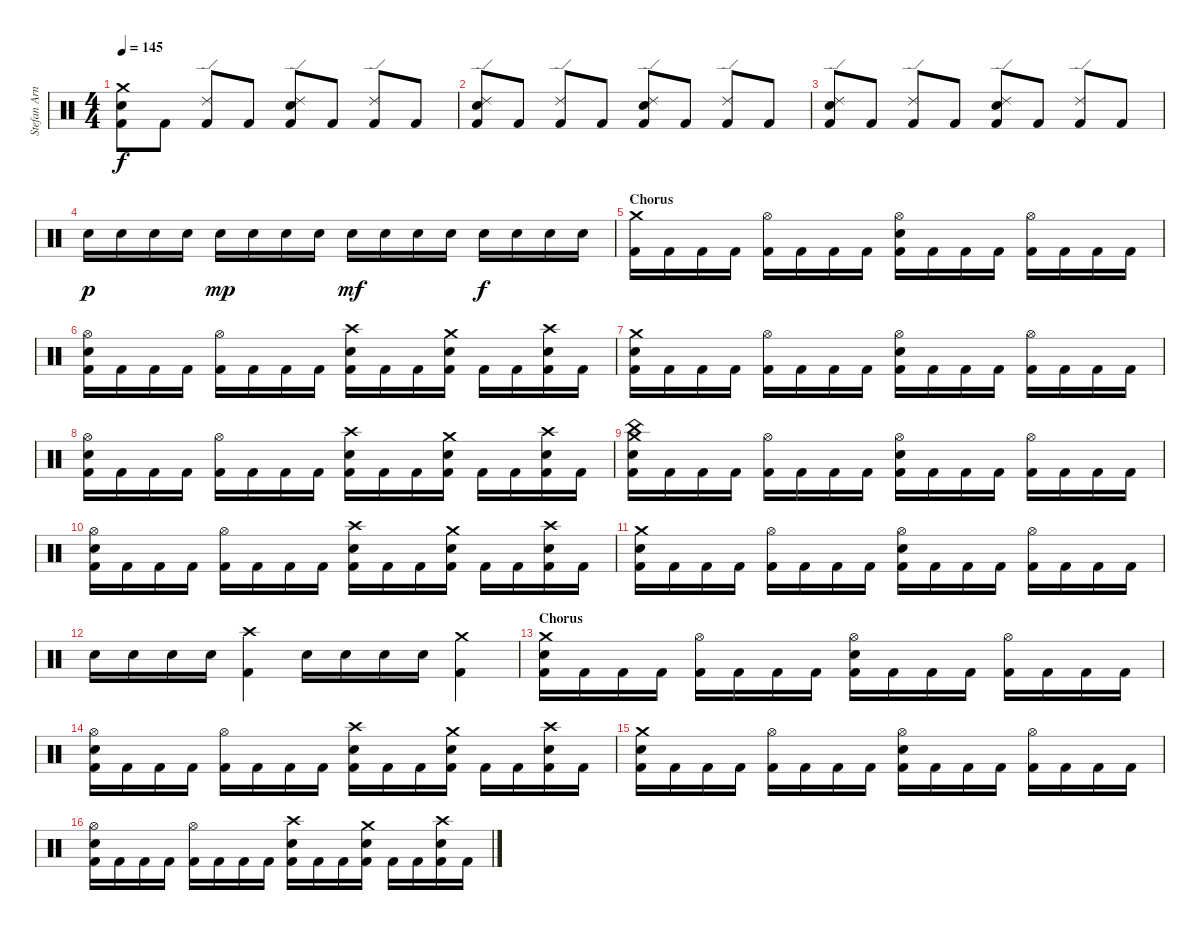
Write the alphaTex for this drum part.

\track ("Stefan Arnold" "Stefan Arn") {instrument percussion}
\staff {score}
\articulation defaults
\ts (4 4)
\tempo 145
\clef neutral
\ks c
("Crash medium (hit)" "Electric Snare (hit)" "Kick (hit) 2").8{dy f} "Kick (hit) 2".8 ("Ride (edge) 2" "Kick (hit) 2").8 "Kick (hit) 2".8 ("Ride (edge) 2" "Electric Snare (hit)" "Kick (hit) 2").8 "Kick (hit) 2".8 ("Ride (edge) 2" "Kick (hit) 2").8 "Kick (hit) 2".8 |
("Ride (edge) 2" "Electric Snare (hit)" "Kick (hit) 2").8 "Kick (hit) 2".8 ("Ride (edge) 2" "Kick (hit) 2").8 "Kick (hit) 2".8 ("Ride (edge) 2" "Electric Snare (hit)" "Kick (hit) 2").8 "Kick (hit) 2".8 ("Ride (edge) 2" "Kick (hit) 2").8 "Kick (hit) 2".8 |
("Ride (edge) 2" "Electric Snare (hit)" "Kick (hit) 2").8 "Kick (hit) 2".8 ("Ride (edge) 2" "Kick (hit) 2").8 "Kick (hit) 2".8 ("Ride (edge) 2" "Electric Snare (hit)" "Kick (hit) 2").8 "Kick (hit) 2".8 ("Ride (edge) 2" "Kick (hit) 2").8 "Kick (hit) 2".8 |
"Electric Snare (hit)".16{dy p} "Electric Snare (hit)".16 "Electric Snare (hit)".16 "Electric Snare (hit)".16 "Electric Snare (hit)".16{dy mp} "Electric Snare (hit)".16 "Electric Snare (hit)".16 "Electric Snare (hit)".16 "Electric Snare (hit)".16{dy mf} "Electric Snare (hit)".16 "Electric Snare (hit)".16 "Electric Snare (hit)".16 "Electric Snare (hit)".16{dy f} "Electric Snare (hit)".16 "Electric Snare (hit)".16 "Electric Snare (hit)".16 |
\section ("" "Chorus")
("Crash medium (hit)" "Kick (hit) 2").16 "Kick (hit) 2".16 "Kick (hit) 2".16 "Kick (hit) 2".16 ("Hi-Hat (open)" "Kick (hit) 2").16 "Kick (hit) 2".16 "Kick (hit) 2".16 "Kick (hit) 2".16 ("Hi-Hat (open)" "Electric Snare (hit)" "Kick (hit) 2").16 "Kick (hit) 2".16 "Kick (hit) 2".16 "Kick (hit) 2".16 ("Hi-Hat (open)" "Kick (hit) 2").16 "Kick (hit) 2".16 "Kick (hit) 2".16 "Kick (hit) 2".16 |
("Hi-Hat (open)" "Electric Snare (hit)" "Kick (hit) 2").16 "Kick (hit) 2".16 "Kick (hit) 2".16 "Kick (hit) 2".16 ("Hi-Hat (open)" "Kick (hit) 2").16 "Kick (hit) 2".16 "Kick (hit) 2".16 "Kick (hit) 2".16 ("Crash high (hit)" "Electric Snare (hit)" "Kick (hit) 2").16 "Kick (hit) 2".16 "Kick (hit) 2".16 ("Crash medium (hit)" "Electric Snare (hit)" "Kick (hit) 2").16 "Kick (hit) 2".16 "Kick (hit) 2".16 ("Crash high (hit)" "Electric Snare (hit)" "Kick (hit) 2").16 "Kick (hit) 2".16 |
("Crash medium (hit)" "Electric Snare (hit)" "Kick (hit) 2").16 "Kick (hit) 2".16 "Kick (hit) 2".16 "Kick (hit) 2".16 ("Hi-Hat (open)" "Kick (hit) 2").16 "Kick (hit) 2".16 "Kick (hit) 2".16 "Kick (hit) 2".16 ("Hi-Hat (open)" "Electric Snare (hit)" "Kick (hit) 2").16 "Kick (hit) 2".16 "Kick (hit) 2".16 "Kick (hit) 2".16 ("Hi-Hat (open)" "Kick (hit) 2").16 "Kick (hit) 2".16 "Kick (hit) 2".16 "Kick (hit) 2".16 |
("Hi-Hat (open)" "Electric Snare (hit)" "Kick (hit) 2").16 "Kick (hit) 2".16 "Kick (hit) 2".16 "Kick (hit) 2".16 ("Hi-Hat (open)" "Kick (hit) 2").16 "Kick (hit) 2".16 "Kick (hit) 2".16 "Kick (hit) 2".16 ("Crash high (hit)" "Electric Snare (hit)" "Kick (hit) 2").16 "Kick (hit) 2".16 "Kick (hit) 2".16 ("Crash medium (hit)" "Electric Snare (hit)" "Kick (hit) 2").16 "Kick (hit) 2".16 "Kick (hit) 2".16 ("Crash high (hit)" "Electric Snare (hit)" "Kick (hit) 2").16 "Kick (hit) 2".16 |
("Crash medium (hit)" "China (hit)" "Electric Snare (hit)" "Kick (hit) 2").16 "Kick (hit) 2".16 "Kick (hit) 2".16 "Kick (hit) 2".16 ("Hi-Hat (open)" "Kick (hit) 2").16 "Kick (hit) 2".16 "Kick (hit) 2".16 "Kick (hit) 2".16 ("Hi-Hat (open)" "Electric Snare (hit)" "Kick (hit) 2").16 "Kick (hit) 2".16 "Kick (hit) 2".16 "Kick (hit) 2".16 ("Hi-Hat (open)" "Kick (hit) 2").16 "Kick (hit) 2".16 "Kick (hit) 2".16 "Kick (hit) 2".16 |
("Hi-Hat (open)" "Electric Snare (hit)" "Kick (hit) 2").16 "Kick (hit) 2".16 "Kick (hit) 2".16 "Kick (hit) 2".16 ("Hi-Hat (open)" "Kick (hit) 2").16 "Kick (hit) 2".16 "Kick (hit) 2".16 "Kick (hit) 2".16 ("Crash high (hit)" "Electric Snare (hit)" "Kick (hit) 2").16 "Kick (hit) 2".16 "Kick (hit) 2".16 ("Crash medium (hit)" "Electric Snare (hit)" "Kick (hit) 2").16 "Kick (hit) 2".16 "Kick (hit) 2".16 ("Crash high (hit)" "Electric Snare (hit)" "Kick (hit) 2").16 "Kick (hit) 2".16 |
("Crash medium (hit)" "Electric Snare (hit)" "Kick (hit) 2").16 "Kick (hit) 2".16 "Kick (hit) 2".16 "Kick (hit) 2".16 ("Hi-Hat (open)" "Kick (hit) 2").16 "Kick (hit) 2".16 "Kick (hit) 2".16 "Kick (hit) 2".16 ("Hi-Hat (open)" "Electric Snare (hit)" "Kick (hit) 2").16 "Kick (hit) 2".16 "Kick (hit) 2".16 "Kick (hit) 2".16 ("Hi-Hat (open)" "Kick (hit) 2").16 "Kick (hit) 2".16 "Kick (hit) 2".16 "Kick (hit) 2".16 |
"Electric Snare (hit)".16 "Electric Snare (hit)".16 "Electric Snare (hit)".16 "Electric Snare (hit)".16 ("Crash high (hit)" "Kick (hit) 2").4 "Electric Snare (hit)".16 "Electric Snare (hit)".16 "Electric Snare (hit)".16 "Electric Snare (hit)".16 ("Crash medium (hit)" "Kick (hit) 2").4 |
\section ("" "Chorus")
("Crash medium (hit)" "Electric Snare (hit)" "Kick (hit) 2").16 "Kick (hit) 2".16 "Kick (hit) 2".16 "Kick (hit) 2".16 ("Hi-Hat (open)" "Kick (hit) 2").16 "Kick (hit) 2".16 "Kick (hit) 2".16 "Kick (hit) 2".16 ("Hi-Hat (open)" "Electric Snare (hit)" "Kick (hit) 2").16 "Kick (hit) 2".16 "Kick (hit) 2".16 "Kick (hit) 2".16 ("Hi-Hat (open)" "Kick (hit) 2").16 "Kick (hit) 2".16 "Kick (hit) 2".16 "Kick (hit) 2".16 |
("Hi-Hat (open)" "Electric Snare (hit)" "Kick (hit) 2").16 "Kick (hit) 2".16 "Kick (hit) 2".16 "Kick (hit) 2".16 ("Hi-Hat (open)" "Kick (hit) 2").16 "Kick (hit) 2".16 "Kick (hit) 2".16 "Kick (hit) 2".16 ("Crash high (hit)" "Electric Snare (hit)" "Kick (hit) 2").16 "Kick (hit) 2".16 "Kick (hit) 2".16 ("Crash medium (hit)" "Electric Snare (hit)" "Kick (hit) 2").16 "Kick (hit) 2".16 "Kick (hit) 2".16 ("Crash high (hit)" "Electric Snare (hit)" "Kick (hit) 2").16 "Kick (hit) 2".16 |
("Crash medium (hit)" "Electric Snare (hit)" "Kick (hit) 2").16 "Kick (hit) 2".16 "Kick (hit) 2".16 "Kick (hit) 2".16 ("Hi-Hat (open)" "Kick (hit) 2").16 "Kick (hit) 2".16 "Kick (hit) 2".16 "Kick (hit) 2".16 ("Hi-Hat (open)" "Electric Snare (hit)" "Kick (hit) 2").16 "Kick (hit) 2".16 "Kick (hit) 2".16 "Kick (hit) 2".16 ("Hi-Hat (open)" "Kick (hit) 2").16 "Kick (hit) 2".16 "Kick (hit) 2".16 "Kick (hit) 2".16 |
("Hi-Hat (open)" "Electric Snare (hit)" "Kick (hit) 2").16 "Kick (hit) 2".16 "Kick (hit) 2".16 "Kick (hit) 2".16 ("Hi-Hat (open)" "Kick (hit) 2").16 "Kick (hit) 2".16 "Kick (hit) 2".16 "Kick (hit) 2".16 ("Crash high (hit)" "Electric Snare (hit)" "Kick (hit) 2").16 "Kick (hit) 2".16 "Kick (hit) 2".16 ("Crash medium (hit)" "Electric Snare (hit)" "Kick (hit) 2").16 "Kick (hit) 2".16 "Kick (hit) 2".16 ("Crash high (hit)" "Electric Snare (hit)" "Kick (hit) 2").16 "Kick (hit) 2".16
